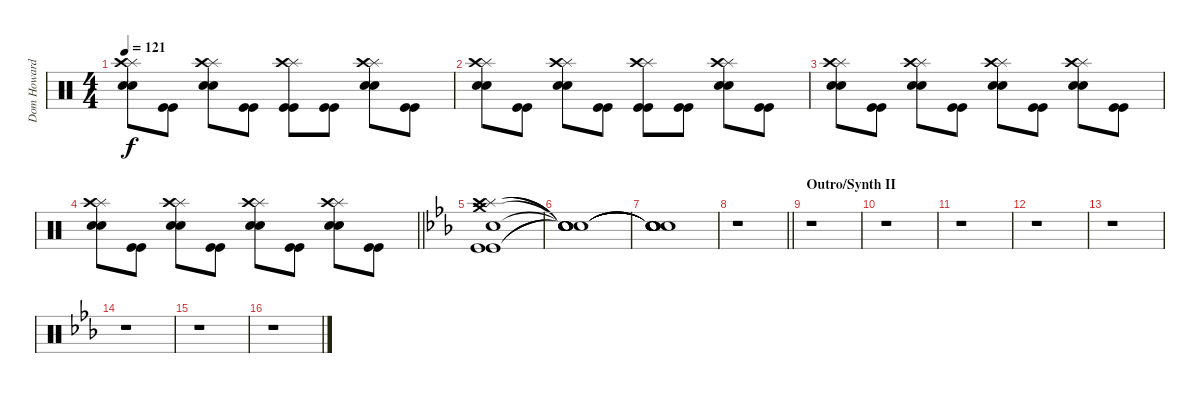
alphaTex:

\track ("Dom Howard - Drums" "Dom Howard") {instrument percussion}
\staff {score}
\articulation defaults
\ts (4 4)
\tempo 121
\clef neutral
\ks c
("Splash (hit)" "Crash high (hit)" "Electric Snare (hit)" "Electric Snare (hit)").8{dy f} ("Kick (hit)" "Kick (hit)").8 ("Splash (hit)" "Crash high (hit)" "Electric Snare (hit)" "Electric Snare (hit)").8 ("Kick (hit)" "Kick (hit)").8 ("Splash (hit)" "Crash high (hit)" "Kick (hit)" "Kick (hit)").8 ("Kick (hit)" "Kick (hit)").8 ("Splash (hit)" "Crash high (hit)" "Electric Snare (hit)" "Electric Snare (hit)").8 ("Kick (hit)" "Kick (hit)").8 |
("Splash (hit)" "Crash high (hit)" "Electric Snare (hit)" "Electric Snare (hit)").8 ("Kick (hit)" "Kick (hit)").8 ("Splash (hit)" "Crash high (hit)" "Electric Snare (hit)" "Electric Snare (hit)").8 ("Kick (hit)" "Kick (hit)").8 ("Splash (hit)" "Crash high (hit)" "Kick (hit)" "Kick (hit)").8 ("Kick (hit)" "Kick (hit)").8 ("Splash (hit)" "Crash high (hit)" "Electric Snare (hit)" "Electric Snare (hit)").8 ("Kick (hit)" "Kick (hit)").8 |
("Splash (hit)" "Crash high (hit)" "Electric Snare (hit)" "Electric Snare (hit)").8 ("Kick (hit)" "Kick (hit)").8 ("Splash (hit)" "Crash high (hit)" "Electric Snare (hit)" "Electric Snare (hit)").8 ("Kick (hit)" "Kick (hit)").8 ("Splash (hit)" "Crash high (hit)" "Electric Snare (hit)" "Electric Snare (hit)").8 ("Kick (hit)" "Kick (hit)").8 ("Splash (hit)" "Crash high (hit)" "Electric Snare (hit)" "Electric Snare (hit)").8 ("Kick (hit)" "Kick (hit)").8 |
\barLineRight lightlight
("Splash (hit)" "Crash high (hit)" "Electric Snare (hit)" "Electric Snare (hit)").8 ("Kick (hit)" "Kick (hit)").8 ("Splash (hit)" "Crash high (hit)" "Electric Snare (hit)" "Electric Snare (hit)").8 ("Kick (hit)" "Kick (hit)").8 ("Splash (hit)" "Crash high (hit)" "Electric Snare (hit)" "Electric Snare (hit)").8 ("Kick (hit)" "Kick (hit)").8 ("Splash (hit)" "Crash high (hit)" "Electric Snare (hit)" "Electric Snare (hit)").8 ("Kick (hit)" "Kick (hit)").8 |
\ks eb
("Splash (hit)" "Crash medium (hit)" "Crash high (hit)" "Electric Snare (hit)" "Kick (hit)" "Kick (hit)").1 |
("Snare (hit)"{t} "Snare (hit)"{t} "Snare (hit)"{t} "Snare (hit)"{t} "Snare (hit)"{t} "Snare (hit)"{t}).1 |
("Snare (hit)"{t} "Snare (hit)"{t} "Snare (hit)"{t} "Snare (hit)"{t} "Snare (hit)"{t} "Snare (hit)"{t}).1 |
\barLineRight lightlight
r.1 |
\section ("" "Outro/Synth II")
r.1 |
r.1 |
r.1 |
r.1 |
r.1 |
r.1 |
r.1 |
r.1
